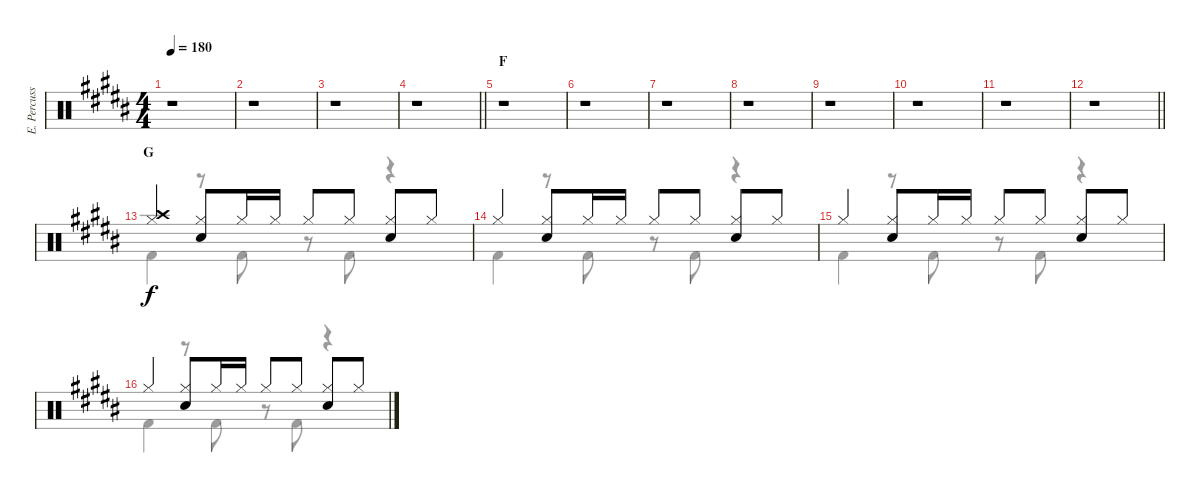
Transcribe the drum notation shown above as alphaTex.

\track ("E. Percussion" "E. Percuss") {instrument percussion}
\staff {score}
\articulation defaults
\voice
\ts (4 4)
\tempo 180
\clef neutral
\ks b
r.1{dy f} |
r.1 |
r.1 |
\barLineRight lightlight
r.1 |
\section ("" "F")
r.1 |
r.1 |
r.1 |
r.1 |
r.1 |
r.1 |
r.1 |
\barLineRight lightlight
r.1 |
\section ("" "G")
("Crash high (hit)" "Hi-Hat (closed)").4 ("Hi-Hat (closed)" "Electric Snare (hit)").8 "Hi-Hat (closed)".16 "Hi-Hat (closed)".16 "Hi-Hat (closed)".8 "Hi-Hat (closed)".8 ("Hi-Hat (closed)" "Electric Snare (hit)").8 "Hi-Hat (closed)".8 |
"Hi-Hat (closed)".4 ("Hi-Hat (closed)" "Electric Snare (hit)").8 "Hi-Hat (closed)".16 "Hi-Hat (closed)".16 "Hi-Hat (closed)".8 "Hi-Hat (closed)".8 ("Hi-Hat (closed)" "Electric Snare (hit)").8 "Hi-Hat (closed)".8 |
"Hi-Hat (closed)".4 ("Hi-Hat (closed)" "Electric Snare (hit)").8 "Hi-Hat (closed)".16 "Hi-Hat (closed)".16 "Hi-Hat (closed)".8 "Hi-Hat (closed)".8 ("Hi-Hat (closed)" "Electric Snare (hit)").8 "Hi-Hat (closed)".8 |
"Hi-Hat (closed)".4 ("Hi-Hat (closed)" "Electric Snare (hit)").8 "Hi-Hat (closed)".16 "Hi-Hat (closed)".16 "Hi-Hat (closed)".8 "Hi-Hat (closed)".8 ("Hi-Hat (closed)" "Electric Snare (hit)").8 "Hi-Hat (closed)".8
\voice
\clef neutral
\ottava regular
\simile none
\ks b
|
|
|
\barLineRight lightlight
|
|
|
|
|
|
|
|
\barLineRight lightlight
|
"Kick (hit) 2".4 r.8 "Kick (hit) 2".8 r.8 "Kick (hit) 2".8 r.4 |
"Kick (hit) 2".4 r.8 "Kick (hit) 2".8 r.8 "Kick (hit) 2".8 r.4 |
"Kick (hit) 2".4 r.8 "Kick (hit) 2".8 r.8 "Kick (hit) 2".8 r.4 |
"Kick (hit) 2".4 r.8 "Kick (hit) 2".8 r.8 "Kick (hit) 2".8 r.4
